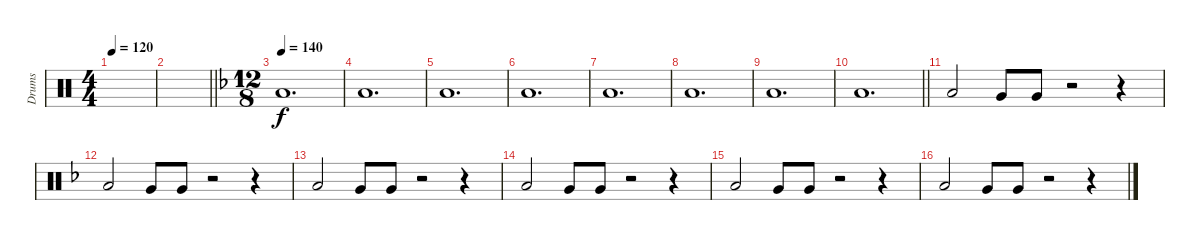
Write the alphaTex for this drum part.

\track ("Drums" "Drums") {instrument percussion}
\staff {score}
\articulation defaults
\ts (4 4)
\tempo 120
\clef neutral
\ks c
|
\barLineRight lightlight
|
\ts (12 8)
\tempo 140
\ks f "Low Floor Tom (hit)".1{d}
|
"Low Floor Tom (hit)".1{d} |
"Low Floor Tom (hit)".1{d} |
"Low Floor Tom (hit)".1{d} |
"Low Floor Tom (hit)".1{d} |
"Low Floor Tom (hit)".1{d} |
"Low Floor Tom (hit)".1{d} |
\barLineRight lightlight "Low Floor Tom (hit)".1{d}
|
"Low Floor Tom (hit)".2 "Very Low Tom (hit)".8 "Very Low Tom (hit)".8 r.2 r.4 |
"Low Floor Tom (hit)".2 "Very Low Tom (hit)".8 "Very Low Tom (hit)".8 r.2 r.4 |
"Low Floor Tom (hit)".2 "Very Low Tom (hit)".8 "Very Low Tom (hit)".8 r.2 r.4 |
"Low Floor Tom (hit)".2 "Very Low Tom (hit)".8 "Very Low Tom (hit)".8 r.2 r.4 |
"Low Floor Tom (hit)".2 "Very Low Tom (hit)".8 "Very Low Tom (hit)".8 r.2 r.4 |
"Low Floor Tom (hit)".2 "Very Low Tom (hit)".8 "Very Low Tom (hit)".8 r.2 r.4
